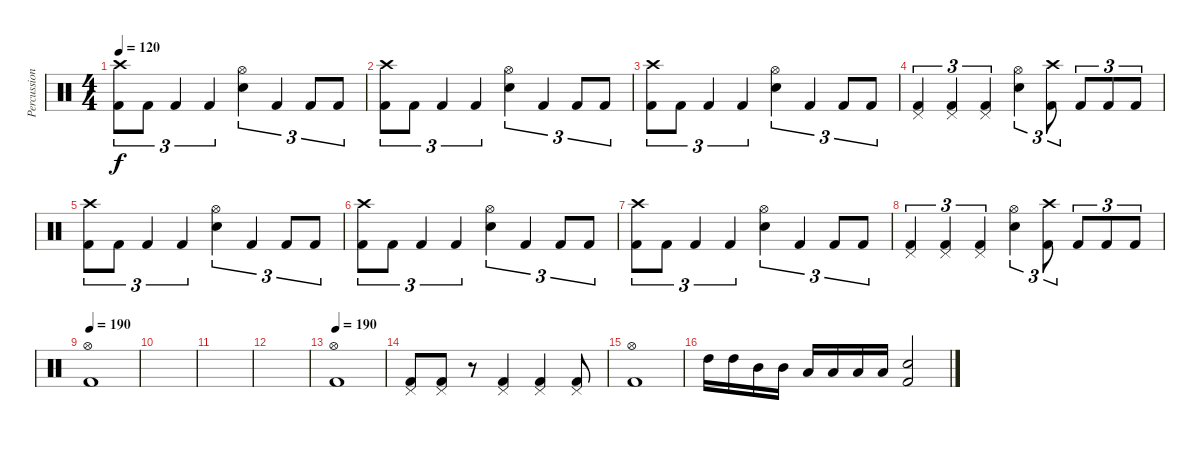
\track ("Percussion" "Percussion") {instrument percussion}
\staff {score}
\articulation defaults
\ts (4 4)
\tempo 120
\clef neutral
\ks c
("Kick (hit) 2" "Crash high (hit)").8{tu (3 2) dy f} "Kick (hit) 2".8{tu (3 2)} "Kick (hit) 2".4{tu (3 2)} "Kick (hit) 2".4{tu (3 2)} ("Snare (hit) 2" "Hi-Hat (open)").4{tu (3 2)} "Kick (hit) 2".4{tu (3 2)} "Kick (hit) 2".8{tu (3 2)} "Kick (hit) 2".8{tu (3 2)} |
("Kick (hit) 2" "Crash high (hit)").8{tu (3 2)} "Kick (hit) 2".8{tu (3 2)} "Kick (hit) 2".4{tu (3 2)} "Kick (hit) 2".4{tu (3 2)} ("Snare (hit) 2" "Hi-Hat (open)").4{tu (3 2)} "Kick (hit) 2".4{tu (3 2)} "Kick (hit) 2".8{tu (3 2)} "Kick (hit) 2".8{tu (3 2)} |
("Kick (hit) 2" "Crash high (hit)").8{tu (3 2)} "Kick (hit) 2".8{tu (3 2)} "Kick (hit) 2".4{tu (3 2)} "Kick (hit) 2".4{tu (3 2)} ("Snare (hit) 2" "Hi-Hat (open)").4{tu (3 2)} "Kick (hit) 2".4{tu (3 2)} "Kick (hit) 2".8{tu (3 2)} "Kick (hit) 2".8{tu (3 2)} |
("Kick (hit) 2" "Pedal Hi-Hat (hit)").4{tu (3 2)} ("Kick (hit) 2" "Pedal Hi-Hat (hit)").4{tu (3 2)} ("Kick (hit) 2" "Pedal Hi-Hat (hit)").4{tu (3 2)} ("Snare (hit) 2" "Hi-Hat (open)").4{tu (3 2)} ("Kick (hit) 2" "Crash high (hit)").8{tu (3 2)} "Kick (hit) 2".8{tu (3 2)} "Kick (hit) 2".8{tu (3 2)} "Kick (hit) 2".8{tu (3 2)} |
("Kick (hit) 2" "Crash high (hit)").8{tu (3 2)} "Kick (hit) 2".8{tu (3 2)} "Kick (hit) 2".4{tu (3 2)} "Kick (hit) 2".4{tu (3 2)} ("Snare (hit) 2" "Hi-Hat (open)").4{tu (3 2)} "Kick (hit) 2".4{tu (3 2)} "Kick (hit) 2".8{tu (3 2)} "Kick (hit) 2".8{tu (3 2)} |
("Kick (hit) 2" "Crash high (hit)").8{tu (3 2)} "Kick (hit) 2".8{tu (3 2)} "Kick (hit) 2".4{tu (3 2)} "Kick (hit) 2".4{tu (3 2)} ("Snare (hit) 2" "Hi-Hat (open)").4{tu (3 2)} "Kick (hit) 2".4{tu (3 2)} "Kick (hit) 2".8{tu (3 2)} "Kick (hit) 2".8{tu (3 2)} |
("Kick (hit) 2" "Crash high (hit)").8{tu (3 2)} "Kick (hit) 2".8{tu (3 2)} "Kick (hit) 2".4{tu (3 2)} "Kick (hit) 2".4{tu (3 2)} ("Snare (hit) 2" "Hi-Hat (open)").4{tu (3 2)} "Kick (hit) 2".4{tu (3 2)} "Kick (hit) 2".8{tu (3 2)} "Kick (hit) 2".8{tu (3 2)} |
("Kick (hit) 2" "Pedal Hi-Hat (hit)").4{tu (3 2)} ("Kick (hit) 2" "Pedal Hi-Hat (hit)").4{tu (3 2)} ("Kick (hit) 2" "Pedal Hi-Hat (hit)").4{tu (3 2)} ("Snare (hit) 2" "Hi-Hat (open)").4{tu (3 2)} ("Kick (hit) 2" "Crash high (hit)").8{tu (3 2)} "Kick (hit) 2".8{tu (3 2)} "Kick (hit) 2".8{tu (3 2)} "Kick (hit) 2".8{tu (3 2)} |
\tempo 190
("Kick (hit) 2" "Hi-Hat (open)").1 |
|
|
|
\tempo 190
("Kick (hit) 2" "Hi-Hat (open)").1 |
("Kick (hit) 2" "Pedal Hi-Hat (hit)").8 ("Kick (hit) 2" "Pedal Hi-Hat (hit)").8 r.8 ("Kick (hit) 2" "Pedal Hi-Hat (hit)").4 ("Kick (hit) 2" "Pedal Hi-Hat (hit)").4 ("Kick (hit) 2" "Pedal Hi-Hat (hit)").8 |
("Kick (hit) 2" "Hi-Hat (open)").1 |
"High Tom (hit)".16 "High Tom (hit)".16 "Mid Tom (hit)".16 "Mid Tom (hit)".16 "Low Tom (hit)".16 "Low Tom (hit)".16 "Low Floor Tom (hit)".16 "Low Floor Tom (hit)".16 ("Kick (hit) 2" "Snare (hit) 2").2
